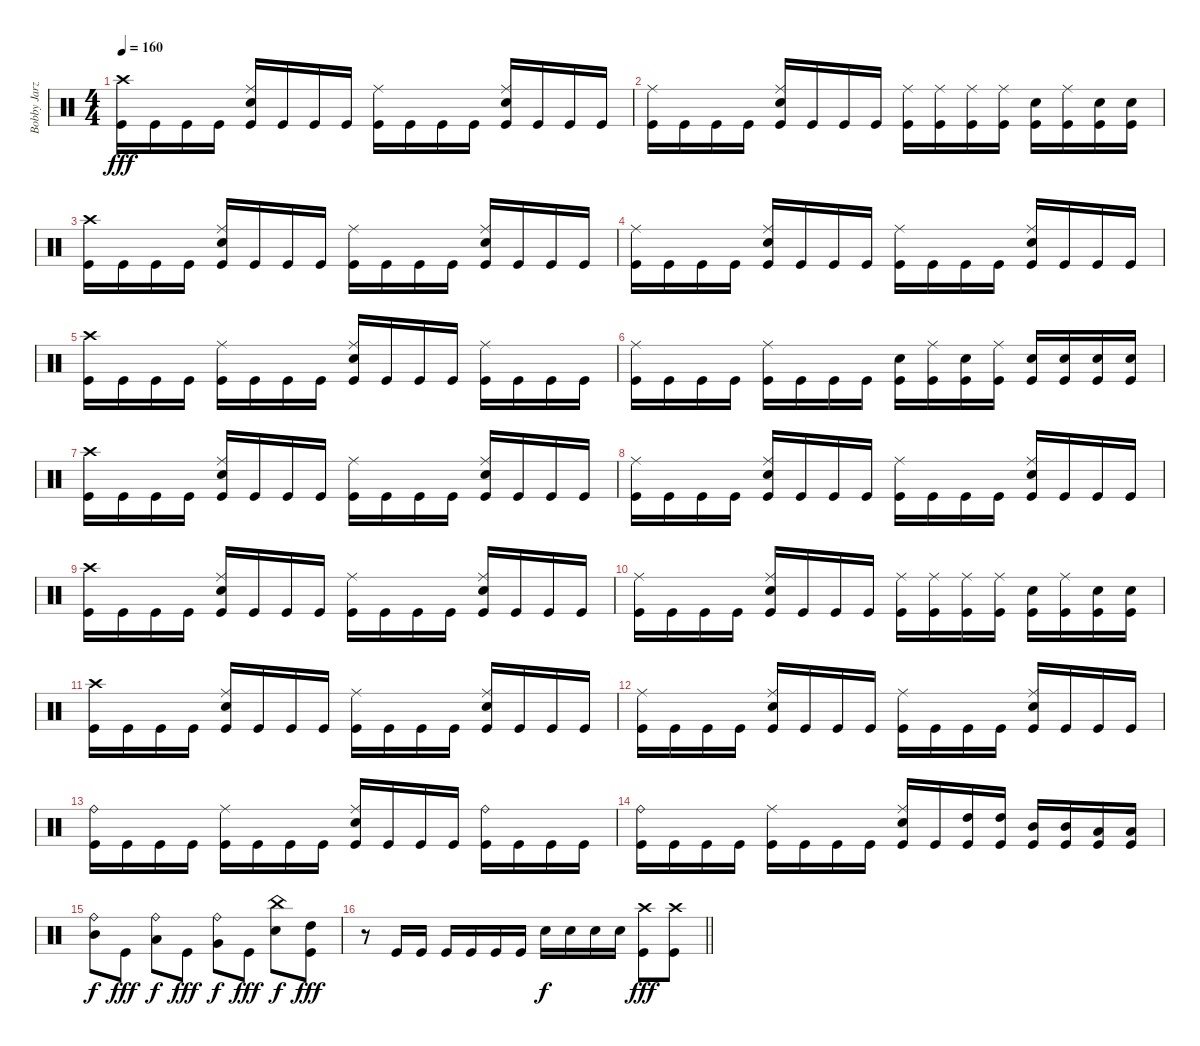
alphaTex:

\track ("Bobby Jarzombek" "Bobby Jarz") {instrument percussion}
\staff {score}
\articulation defaults
\ts (4 4)
\tempo 160
\clef neutral
\ks c
("Crash high (hit)" "Kick (hit)").16{dy fff} "Kick (hit)".16 "Kick (hit)".16 "Kick (hit)".16 ("Ride (middle)" "Electric Snare (hit)" "Kick (hit)").16 "Kick (hit)".16 "Kick (hit)".16 "Kick (hit)".16 ("Ride (middle)" "Kick (hit)").16 "Kick (hit)".16 "Kick (hit)".16 "Kick (hit)".16 ("Ride (middle)" "Electric Snare (hit)" "Kick (hit)").16 "Kick (hit)".16 "Kick (hit)".16 "Kick (hit)".16 |
("Ride (middle)" "Kick (hit)").16 "Kick (hit)".16 "Kick (hit)".16 "Kick (hit)".16 ("Ride (middle)" "Electric Snare (hit)" "Kick (hit)").16 "Kick (hit)".16 "Kick (hit)".16 "Kick (hit)".16 ("Ride (middle)" "Kick (hit)").16 ("Ride (middle)" "Kick (hit)").16 ("Ride (middle)" "Kick (hit)").16 ("Ride (middle)" "Kick (hit)").16 ("Electric Snare (hit)" "Kick (hit)").16 ("Ride (middle)" "Kick (hit)").16 ("Electric Snare (hit)" "Kick (hit)").16 ("Electric Snare (hit)" "Kick (hit)").16 |
("Crash high (hit)" "Kick (hit)").16 "Kick (hit)".16 "Kick (hit)".16 "Kick (hit)".16 ("Ride (middle)" "Electric Snare (hit)" "Kick (hit)").16 "Kick (hit)".16 "Kick (hit)".16 "Kick (hit)".16 ("Ride (middle)" "Kick (hit)").16 "Kick (hit)".16 "Kick (hit)".16 "Kick (hit)".16 ("Ride (middle)" "Electric Snare (hit)" "Kick (hit)").16 "Kick (hit)".16 "Kick (hit)".16 "Kick (hit)".16 |
("Ride (middle)" "Kick (hit)").16 "Kick (hit)".16 "Kick (hit)".16 "Kick (hit)".16 ("Ride (middle)" "Electric Snare (hit)" "Kick (hit)").16 "Kick (hit)".16 "Kick (hit)".16 "Kick (hit)".16 ("Ride (middle)" "Kick (hit)").16 "Kick (hit)".16 "Kick (hit)".16 "Kick (hit)".16 ("Ride (middle)" "Electric Snare (hit)" "Kick (hit)").16 "Kick (hit)".16 "Kick (hit)".16 "Kick (hit)".16 |
("Crash high (hit)" "Kick (hit)").16 "Kick (hit)".16 "Kick (hit)".16 "Kick (hit)".16 ("Ride (middle)" "Kick (hit)").16 "Kick (hit)".16 "Kick (hit)".16 "Kick (hit)".16 ("Ride (middle)" "Electric Snare (hit)" "Kick (hit)").16 "Kick (hit)".16 "Kick (hit)".16 "Kick (hit)".16 ("Ride (middle)" "Kick (hit)").16 "Kick (hit)".16 "Kick (hit)".16 "Kick (hit)".16 |
("Ride (middle)" "Kick (hit)").16 "Kick (hit)".16 "Kick (hit)".16 "Kick (hit)".16 ("Ride (middle)" "Kick (hit)").16 "Kick (hit)".16 "Kick (hit)".16 "Kick (hit)".16 ("Electric Snare (hit)" "Kick (hit)").16 ("Ride (middle)" "Kick (hit)").16 ("Electric Snare (hit)" "Kick (hit)").16 ("Ride (middle)" "Kick (hit)").16 ("Electric Snare (hit)" "Kick (hit)").16 ("Electric Snare (hit)" "Kick (hit)").16 ("Electric Snare (hit)" "Kick (hit)").16 ("Electric Snare (hit)" "Kick (hit)").16 |
("Crash high (hit)" "Kick (hit)").16 "Kick (hit)".16 "Kick (hit)".16 "Kick (hit)".16 ("Ride (middle)" "Electric Snare (hit)" "Kick (hit)").16 "Kick (hit)".16 "Kick (hit)".16 "Kick (hit)".16 ("Ride (middle)" "Kick (hit)").16 "Kick (hit)".16 "Kick (hit)".16 "Kick (hit)".16 ("Ride (middle)" "Electric Snare (hit)" "Kick (hit)").16 "Kick (hit)".16 "Kick (hit)".16 "Kick (hit)".16 |
("Ride (middle)" "Kick (hit)").16 "Kick (hit)".16 "Kick (hit)".16 "Kick (hit)".16 ("Ride (middle)" "Electric Snare (hit)" "Kick (hit)").16 "Kick (hit)".16 "Kick (hit)".16 "Kick (hit)".16 ("Ride (middle)" "Kick (hit)").16 "Kick (hit)".16 "Kick (hit)".16 "Kick (hit)".16 ("Ride (middle)" "Electric Snare (hit)" "Kick (hit)").16 "Kick (hit)".16 "Kick (hit)".16 "Kick (hit)".16 |
("Crash high (hit)" "Kick (hit)").16 "Kick (hit)".16 "Kick (hit)".16 "Kick (hit)".16 ("Ride (middle)" "Electric Snare (hit)" "Kick (hit)").16 "Kick (hit)".16 "Kick (hit)".16 "Kick (hit)".16 ("Ride (middle)" "Kick (hit)").16 "Kick (hit)".16 "Kick (hit)".16 "Kick (hit)".16 ("Ride (middle)" "Electric Snare (hit)" "Kick (hit)").16 "Kick (hit)".16 "Kick (hit)".16 "Kick (hit)".16 |
("Ride (middle)" "Kick (hit)").16 "Kick (hit)".16 "Kick (hit)".16 "Kick (hit)".16 ("Ride (middle)" "Electric Snare (hit)" "Kick (hit)").16 "Kick (hit)".16 "Kick (hit)".16 "Kick (hit)".16 ("Ride (middle)" "Kick (hit)").16 ("Ride (middle)" "Kick (hit)").16 ("Ride (middle)" "Kick (hit)").16 ("Ride (middle)" "Kick (hit)").16 ("Electric Snare (hit)" "Kick (hit)").16 ("Ride (middle)" "Kick (hit)").16 ("Electric Snare (hit)" "Kick (hit)").16 ("Electric Snare (hit)" "Kick (hit)").16 |
("Crash high (hit)" "Kick (hit)").16 "Kick (hit)".16 "Kick (hit)".16 "Kick (hit)".16 ("Ride (middle)" "Electric Snare (hit)" "Kick (hit)").16 "Kick (hit)".16 "Kick (hit)".16 "Kick (hit)".16 ("Ride (middle)" "Kick (hit)").16 "Kick (hit)".16 "Kick (hit)".16 "Kick (hit)".16 ("Ride (middle)" "Electric Snare (hit)" "Kick (hit)").16 "Kick (hit)".16 "Kick (hit)".16 "Kick (hit)".16 |
("Ride (middle)" "Kick (hit)").16 "Kick (hit)".16 "Kick (hit)".16 "Kick (hit)".16 ("Ride (middle)" "Electric Snare (hit)" "Kick (hit)").16 "Kick (hit)".16 "Kick (hit)".16 "Kick (hit)".16 ("Ride (middle)" "Kick (hit)").16 "Kick (hit)".16 "Kick (hit)".16 "Kick (hit)".16 ("Ride (middle)" "Electric Snare (hit)" "Kick (hit)").16 "Kick (hit)".16 "Kick (hit)".16 "Kick (hit)".16 |
("Ride (bell)" "Kick (hit)").16 "Kick (hit)".16 "Kick (hit)".16 "Kick (hit)".16 ("Ride (middle)" "Kick (hit)").16 "Kick (hit)".16 "Kick (hit)".16 "Kick (hit)".16 ("Ride (middle)" "Electric Snare (hit)" "Kick (hit)").16 "Kick (hit)".16 "Kick (hit)".16 "Kick (hit)".16 ("Ride (bell)" "Kick (hit)").16 "Kick (hit)".16 "Kick (hit)".16 "Kick (hit)".16 |
("Ride (bell)" "Kick (hit)").16 "Kick (hit)".16 "Kick (hit)".16 "Kick (hit)".16 ("Ride (middle)" "Kick (hit)").16 "Kick (hit)".16 "Kick (hit)".16 "Kick (hit)".16 ("Ride (middle)" "Electric Snare (hit)" "Kick (hit)").16 "Kick (hit)".16 ("High Tom (hit)" "Kick (hit)").16 ("High Tom (hit)" "Kick (hit)").16 ("Mid Tom (hit)" "Kick (hit)").16 ("Mid Tom (hit)" "Kick (hit)").16 ("Low Tom (hit)" "Kick (hit)").16 ("Low Tom (hit)" "Kick (hit)").16 |
("Ride (bell)" "Mid Tom (hit)").8{dy f} "Kick (hit)".8{dy fff} ("Ride (bell)" "Low Tom (hit)").8{dy f} "Kick (hit)".8{dy fff} ("Ride (bell)" "Very Low Tom (hit)").8{dy f} "Kick (hit)".8{dy fff} ("China (hit)" "Electric Snare (hit)").8{dy f} ("High Tom (hit)" "Kick (hit)").8{dy fff} |
\barLineRight lightlight
r.8 "Kick (hit)".16 "Kick (hit)".16 "Kick (hit)".16 "Kick (hit)".16 "Kick (hit)".16 "Kick (hit)".16 "Electric Snare (hit)".16{dy f} "Electric Snare (hit)".16 "Electric Snare (hit)".16 "Electric Snare (hit)".16 ("Crash high (hit)" "Kick (hit)").8{dy fff} ("Crash high (hit)" "Kick (hit)").8
